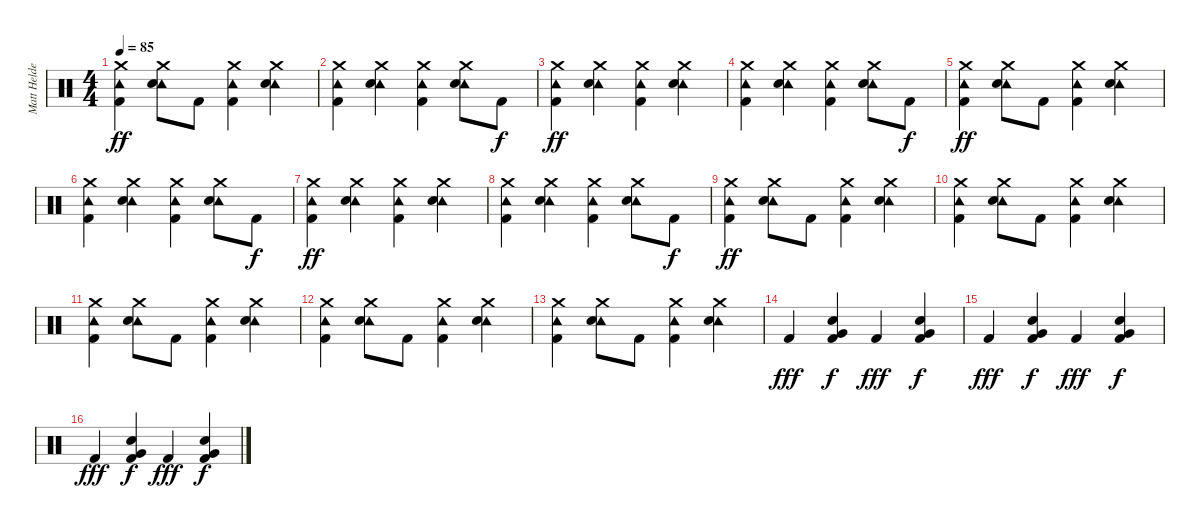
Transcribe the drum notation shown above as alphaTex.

\track ("Matt Helders - Drums" "Matt Helde") {instrument percussion}
\staff {score}
\articulation defaults
\ts (4 4)
\tempo 85
\clef neutral
\ks c
("Crash medium (hit)" "Tambourine (hit)" "Kick (hit) 2").4{dy ff} ("Crash medium (hit)" "Tambourine (hit)" "Electric Snare (hit)").8 "Kick (hit) 2".8 ("Crash medium (hit)" "Tambourine (hit)" "Kick (hit) 2").4 ("Crash medium (hit)" "Tambourine (hit)" "Electric Snare (hit)").4 |
("Crash medium (hit)" "Tambourine (hit)" "Kick (hit) 2").4 ("Crash medium (hit)" "Tambourine (hit)" "Electric Snare (hit)").4 ("Crash medium (hit)" "Tambourine (hit)" "Kick (hit) 2").4 ("Crash medium (hit)" "Tambourine (hit)" "Electric Snare (hit)").8 "Kick (hit) 2".8{dy f} |
("Crash medium (hit)" "Tambourine (hit)" "Kick (hit) 2").4{dy ff} ("Crash medium (hit)" "Tambourine (hit)" "Electric Snare (hit)").4 ("Crash medium (hit)" "Tambourine (hit)" "Kick (hit) 2").4 ("Crash medium (hit)" "Tambourine (hit)" "Electric Snare (hit)").4 |
("Crash medium (hit)" "Tambourine (hit)" "Kick (hit) 2").4 ("Crash medium (hit)" "Tambourine (hit)" "Electric Snare (hit)").4 ("Crash medium (hit)" "Tambourine (hit)" "Kick (hit) 2").4 ("Crash medium (hit)" "Tambourine (hit)" "Electric Snare (hit)").8 "Kick (hit) 2".8{dy f} |
("Crash medium (hit)" "Tambourine (hit)" "Kick (hit) 2").4{dy ff} ("Crash medium (hit)" "Tambourine (hit)" "Electric Snare (hit)").8 "Kick (hit) 2".8 ("Crash medium (hit)" "Tambourine (hit)" "Kick (hit) 2").4 ("Crash medium (hit)" "Tambourine (hit)" "Electric Snare (hit)").4 |
("Crash medium (hit)" "Tambourine (hit)" "Kick (hit) 2").4 ("Crash medium (hit)" "Tambourine (hit)" "Electric Snare (hit)").4 ("Crash medium (hit)" "Tambourine (hit)" "Kick (hit) 2").4 ("Crash medium (hit)" "Tambourine (hit)" "Electric Snare (hit)").8 "Kick (hit) 2".8{dy f} |
("Crash medium (hit)" "Tambourine (hit)" "Kick (hit) 2").4{dy ff} ("Crash medium (hit)" "Tambourine (hit)" "Electric Snare (hit)").4 ("Crash medium (hit)" "Tambourine (hit)" "Kick (hit) 2").4 ("Crash medium (hit)" "Tambourine (hit)" "Electric Snare (hit)").4 |
("Crash medium (hit)" "Tambourine (hit)" "Kick (hit) 2").4 ("Crash medium (hit)" "Tambourine (hit)" "Electric Snare (hit)").4 ("Crash medium (hit)" "Tambourine (hit)" "Kick (hit) 2").4 ("Crash medium (hit)" "Tambourine (hit)" "Electric Snare (hit)").8 "Kick (hit) 2".8{dy f} |
("Crash medium (hit)" "Tambourine (hit)" "Kick (hit) 2").4{dy ff} ("Crash medium (hit)" "Tambourine (hit)" "Electric Snare (hit)").8 "Kick (hit) 2".8 ("Crash medium (hit)" "Tambourine (hit)" "Kick (hit) 2").4 ("Crash medium (hit)" "Tambourine (hit)" "Electric Snare (hit)").4 |
("Crash medium (hit)" "Tambourine (hit)" "Kick (hit) 2").4 ("Crash medium (hit)" "Tambourine (hit)" "Electric Snare (hit)").8 "Kick (hit) 2".8 ("Crash medium (hit)" "Tambourine (hit)" "Kick (hit) 2").4 ("Crash medium (hit)" "Tambourine (hit)" "Electric Snare (hit)").4 |
("Crash medium (hit)" "Tambourine (hit)" "Kick (hit) 2").4 ("Crash medium (hit)" "Tambourine (hit)" "Electric Snare (hit)").8 "Kick (hit) 2".8 ("Crash medium (hit)" "Tambourine (hit)" "Kick (hit) 2").4 ("Crash medium (hit)" "Tambourine (hit)" "Electric Snare (hit)").4 |
("Crash medium (hit)" "Tambourine (hit)" "Kick (hit) 2").4 ("Crash medium (hit)" "Tambourine (hit)" "Electric Snare (hit)").8 "Kick (hit) 2".8 ("Crash medium (hit)" "Tambourine (hit)" "Kick (hit) 2").4 ("Crash medium (hit)" "Tambourine (hit)" "Electric Snare (hit)").4 |
("Crash medium (hit)" "Tambourine (hit)" "Kick (hit) 2").4 ("Crash medium (hit)" "Tambourine (hit)" "Electric Snare (hit)").8 "Kick (hit) 2".8 ("Crash medium (hit)" "Tambourine (hit)" "Kick (hit) 2").4 ("Crash medium (hit)" "Tambourine (hit)" "Electric Snare (hit)").4 |
"Kick (hit) 2".4{dy fff} ("Kick (hit) 2" "Very Low Tom (hit)" "Hand Clap (hit)").4{dy f} "Kick (hit) 2".4{dy fff} ("Kick (hit) 2" "Very Low Tom (hit)" "Hand Clap (hit)").4{dy f} |
"Kick (hit) 2".4{dy fff} ("Kick (hit) 2" "Very Low Tom (hit)" "Hand Clap (hit)").4{dy f} "Kick (hit) 2".4{dy fff} ("Kick (hit) 2" "Very Low Tom (hit)" "Hand Clap (hit)").4{dy f} |
"Kick (hit) 2".4{dy fff} ("Kick (hit) 2" "Very Low Tom (hit)" "Hand Clap (hit)").4{dy f} "Kick (hit) 2".4{dy fff} ("Kick (hit) 2" "Very Low Tom (hit)" "Hand Clap (hit)").4{dy f}
